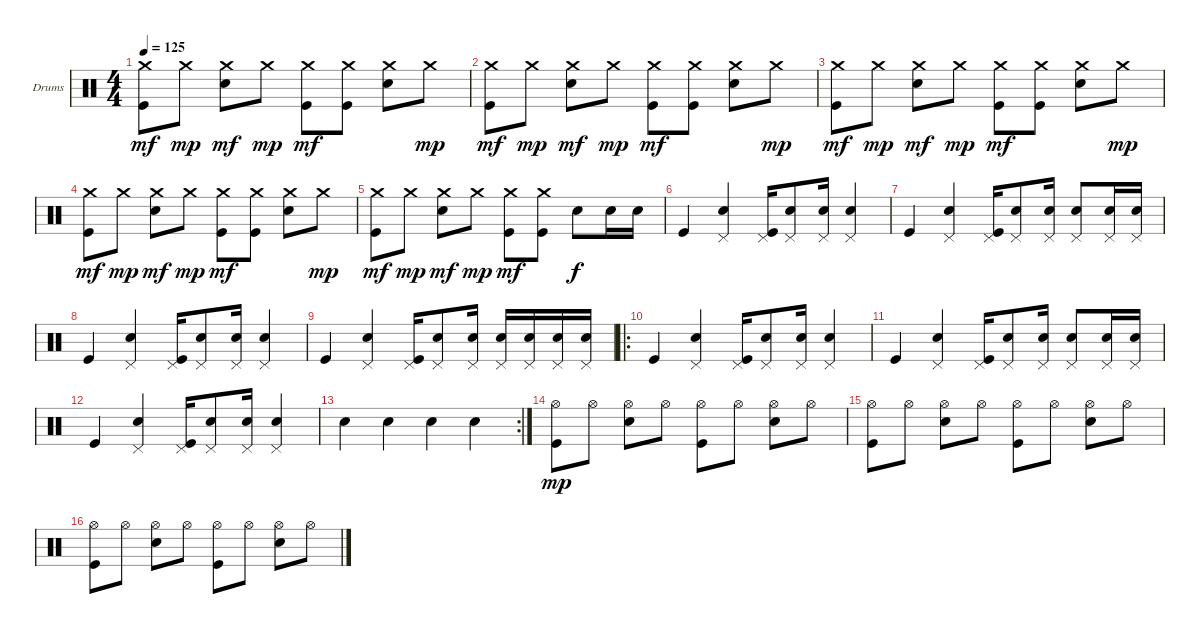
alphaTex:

\bracketExtendMode groupsimilarinstruments
\firstSystemTrackNameOrientation horizontal
\otherSystemsTrackNameOrientation horizontal
\track ("Rian Dawson" "Drums") {instrument percussion}
\staff {score}
\articulation defaults
\ts (4 4)
\tempo 125
\clef neutral
\ks c
("Crash medium (hit)" "Kick (hit)").8{dy mf} "Crash medium (hit)".8{dy mp} ("Crash medium (hit)" "Snare (hit) 2").8{dy mf} "Crash medium (hit)".8{dy mp} ("Crash medium (hit)" "Kick (hit)").8{dy mf} ("Crash medium (hit)" "Kick (hit)").8 ("Crash medium (hit)" "Snare (hit) 2").8 "Crash medium (hit)".8{dy mp} |
("Crash medium (hit)" "Kick (hit)").8{dy mf} "Crash medium (hit)".8{dy mp} ("Crash medium (hit)" "Snare (hit) 2").8{dy mf} "Crash medium (hit)".8{dy mp} ("Crash medium (hit)" "Kick (hit)").8{dy mf} ("Crash medium (hit)" "Kick (hit)").8 ("Crash medium (hit)" "Snare (hit) 2").8 "Crash medium (hit)".8{dy mp} |
("Crash medium (hit)" "Kick (hit)").8{dy mf} "Crash medium (hit)".8{dy mp} ("Crash medium (hit)" "Snare (hit) 2").8{dy mf} "Crash medium (hit)".8{dy mp} ("Crash medium (hit)" "Kick (hit)").8{dy mf} ("Crash medium (hit)" "Kick (hit)").8 ("Crash medium (hit)" "Snare (hit) 2").8 "Crash medium (hit)".8{dy mp} |
("Crash medium (hit)" "Kick (hit)").8{dy mf} "Crash medium (hit)".8{dy mp} ("Crash medium (hit)" "Snare (hit) 2").8{dy mf} "Crash medium (hit)".8{dy mp} ("Crash medium (hit)" "Kick (hit)").8{dy mf} ("Crash medium (hit)" "Kick (hit)").8 ("Crash medium (hit)" "Snare (hit) 2").8 "Crash medium (hit)".8{dy mp} |
("Crash medium (hit)" "Kick (hit)").8{dy mf} "Crash medium (hit)".8{dy mp} ("Crash medium (hit)" "Snare (hit) 2").8{dy mf} "Crash medium (hit)".8{dy mp} ("Crash medium (hit)" "Kick (hit)").8{dy mf} ("Crash medium (hit)" "Kick (hit)").8 "Snare (hit) 2".8{dy f} "Snare (hit) 2".16 "Snare (hit) 2".16 |
"Kick (hit)".4 ("Pedal Hi-Hat (hit)" "Snare (hit) 2").4 ("Pedal Hi-Hat (hit)" "Kick (hit)").16 ("Pedal Hi-Hat (hit)" "Snare (hit) 2").8 ("Pedal Hi-Hat (hit)" "Snare (hit) 2").16 ("Pedal Hi-Hat (hit)" "Snare (hit) 2").4 |
"Kick (hit)".4 ("Pedal Hi-Hat (hit)" "Snare (hit) 2").4 ("Pedal Hi-Hat (hit)" "Kick (hit)").16 ("Pedal Hi-Hat (hit)" "Snare (hit) 2").8 ("Pedal Hi-Hat (hit)" "Snare (hit) 2").16 ("Pedal Hi-Hat (hit)" "Snare (hit) 2").8 ("Pedal Hi-Hat (hit)" "Snare (hit) 2").16 ("Pedal Hi-Hat (hit)" "Snare (hit) 2").16 |
"Kick (hit)".4 ("Pedal Hi-Hat (hit)" "Snare (hit) 2").4 ("Pedal Hi-Hat (hit)" "Kick (hit)").16 ("Pedal Hi-Hat (hit)" "Snare (hit) 2").8 ("Pedal Hi-Hat (hit)" "Snare (hit) 2").16 ("Pedal Hi-Hat (hit)" "Snare (hit) 2").4 |
"Kick (hit)".4 ("Pedal Hi-Hat (hit)" "Snare (hit) 2").4 ("Pedal Hi-Hat (hit)" "Kick (hit)").16 ("Pedal Hi-Hat (hit)" "Snare (hit) 2").8 ("Pedal Hi-Hat (hit)" "Snare (hit) 2").16 ("Pedal Hi-Hat (hit)" "Snare (hit) 2").16 ("Pedal Hi-Hat (hit)" "Snare (hit) 2").16 ("Pedal Hi-Hat (hit)" "Snare (hit) 2").16 ("Pedal Hi-Hat (hit)" "Snare (hit) 2").16 |
\ro "Kick (hit)".4
("Pedal Hi-Hat (hit)" "Snare (hit) 2").4 ("Pedal Hi-Hat (hit)" "Kick (hit)").16 ("Pedal Hi-Hat (hit)" "Snare (hit) 2").8 ("Pedal Hi-Hat (hit)" "Snare (hit) 2").16 ("Pedal Hi-Hat (hit)" "Snare (hit) 2").4 |
"Kick (hit)".4 ("Pedal Hi-Hat (hit)" "Snare (hit) 2").4 ("Pedal Hi-Hat (hit)" "Kick (hit)").16 ("Pedal Hi-Hat (hit)" "Snare (hit) 2").8 ("Pedal Hi-Hat (hit)" "Snare (hit) 2").16 ("Pedal Hi-Hat (hit)" "Snare (hit) 2").8 ("Pedal Hi-Hat (hit)" "Snare (hit) 2").16 ("Pedal Hi-Hat (hit)" "Snare (hit) 2").16 |
"Kick (hit)".4 ("Pedal Hi-Hat (hit)" "Snare (hit) 2").4 ("Pedal Hi-Hat (hit)" "Kick (hit)").16 ("Pedal Hi-Hat (hit)" "Snare (hit) 2").8 ("Pedal Hi-Hat (hit)" "Snare (hit) 2").16 ("Pedal Hi-Hat (hit)" "Snare (hit) 2").4 |
\rc 2 "Snare (hit) 2".4 "Snare (hit) 2".4 "Snare (hit) 2".4 "Snare (hit) 2".4
|
("Hi-Hat (open)" "Kick (hit)").8{dy mp} "Hi-Hat (open)".8 ("Hi-Hat (open)" "Snare (hit) 2").8 "Hi-Hat (open)".8 ("Hi-Hat (open)" "Kick (hit)").8 "Hi-Hat (open)".8 ("Hi-Hat (open)" "Snare (hit) 2").8 "Hi-Hat (open)".8 |
("Hi-Hat (open)" "Kick (hit)").8 "Hi-Hat (open)".8 ("Hi-Hat (open)" "Snare (hit) 2").8 "Hi-Hat (open)".8 ("Hi-Hat (open)" "Kick (hit)").8 "Hi-Hat (open)".8 ("Hi-Hat (open)" "Snare (hit) 2").8 "Hi-Hat (open)".8 |
("Hi-Hat (open)" "Kick (hit)").8 "Hi-Hat (open)".8 ("Hi-Hat (open)" "Snare (hit) 2").8 "Hi-Hat (open)".8 ("Hi-Hat (open)" "Kick (hit)").8 "Hi-Hat (open)".8 ("Hi-Hat (open)" "Snare (hit) 2").8 "Hi-Hat (open)".8
